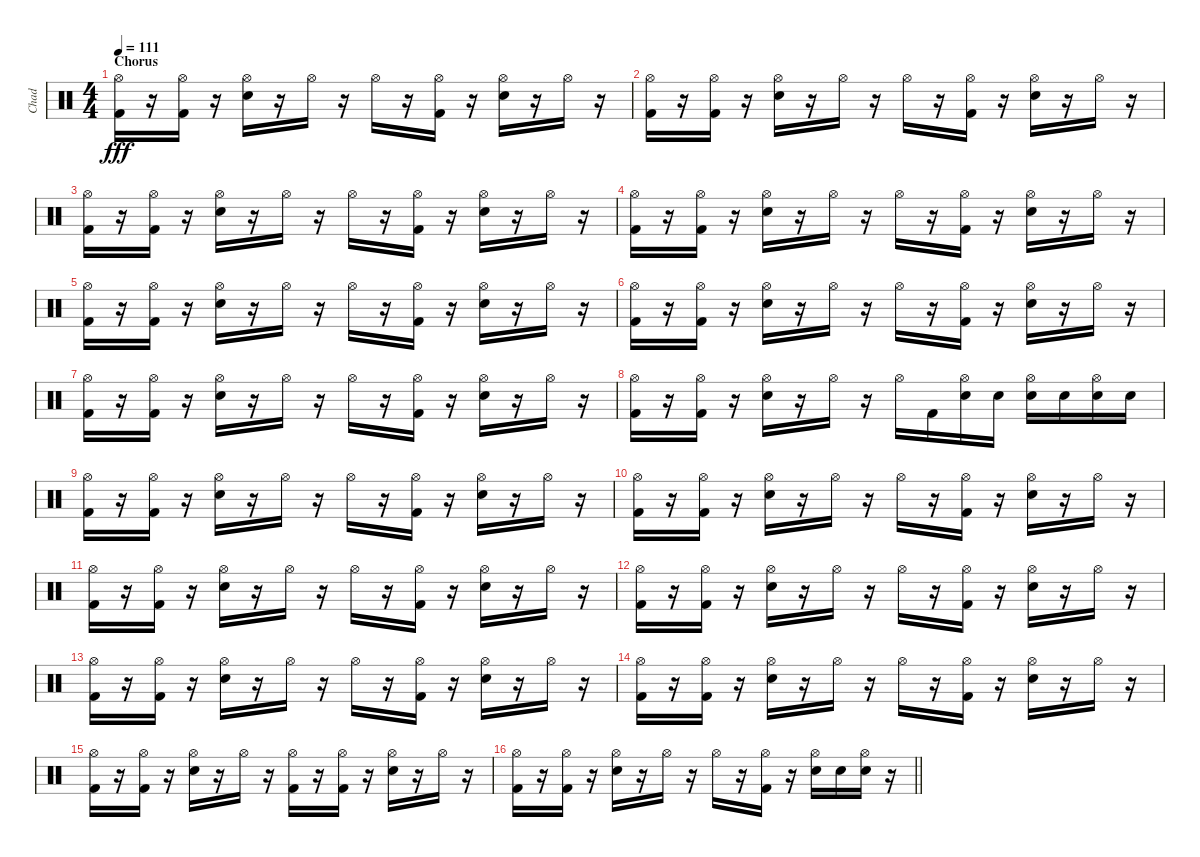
\track ("Chad" "Chad") {instrument percussion}
\staff {score}
\articulation defaults
\ts (4 4)
\section ("" "Chorus")
\tempo 111
\clef neutral
\ks c
("Hi-Hat (open)" "Kick (hit) 2").16{dy fff} r.16 ("Hi-Hat (open)" "Kick (hit) 2").16 r.16 ("Hi-Hat (open)" "Electric Snare (hit)").16 r.16 "Hi-Hat (open)".16 r.16 "Hi-Hat (open)".16 r.16 ("Hi-Hat (open)" "Kick (hit) 2").16 r.16 ("Hi-Hat (open)" "Electric Snare (hit)").16 r.16 "Hi-Hat (open)".16 r.16 |
("Hi-Hat (open)" "Kick (hit) 2").16 r.16 ("Hi-Hat (open)" "Kick (hit) 2").16 r.16 ("Hi-Hat (open)" "Electric Snare (hit)").16 r.16 "Hi-Hat (open)".16 r.16 "Hi-Hat (open)".16 r.16 ("Hi-Hat (open)" "Kick (hit) 2").16 r.16 ("Hi-Hat (open)" "Electric Snare (hit)").16 r.16 "Hi-Hat (open)".16 r.16 |
("Hi-Hat (open)" "Kick (hit) 2").16 r.16 ("Hi-Hat (open)" "Kick (hit) 2").16 r.16 ("Hi-Hat (open)" "Electric Snare (hit)").16 r.16 "Hi-Hat (open)".16 r.16 "Hi-Hat (open)".16 r.16 ("Hi-Hat (open)" "Kick (hit) 2").16 r.16 ("Hi-Hat (open)" "Electric Snare (hit)").16 r.16 "Hi-Hat (open)".16 r.16 |
("Hi-Hat (open)" "Kick (hit) 2").16 r.16 ("Hi-Hat (open)" "Kick (hit) 2").16 r.16 ("Hi-Hat (open)" "Electric Snare (hit)").16 r.16 "Hi-Hat (open)".16 r.16 "Hi-Hat (open)".16 r.16 ("Hi-Hat (open)" "Kick (hit) 2").16 r.16 ("Hi-Hat (open)" "Electric Snare (hit)").16 r.16 "Hi-Hat (open)".16 r.16 |
("Hi-Hat (open)" "Kick (hit) 2").16 r.16 ("Hi-Hat (open)" "Kick (hit) 2").16 r.16 ("Hi-Hat (open)" "Electric Snare (hit)").16 r.16 "Hi-Hat (open)".16 r.16 "Hi-Hat (open)".16 r.16 ("Hi-Hat (open)" "Kick (hit) 2").16 r.16 ("Hi-Hat (open)" "Electric Snare (hit)").16 r.16 "Hi-Hat (open)".16 r.16 |
("Hi-Hat (open)" "Kick (hit) 2").16 r.16 ("Hi-Hat (open)" "Kick (hit) 2").16 r.16 ("Hi-Hat (open)" "Electric Snare (hit)").16 r.16 "Hi-Hat (open)".16 r.16 "Hi-Hat (open)".16 r.16 ("Hi-Hat (open)" "Kick (hit) 2").16 r.16 ("Hi-Hat (open)" "Electric Snare (hit)").16 r.16 "Hi-Hat (open)".16 r.16 |
("Hi-Hat (open)" "Kick (hit) 2").16 r.16 ("Hi-Hat (open)" "Kick (hit) 2").16 r.16 ("Hi-Hat (open)" "Electric Snare (hit)").16 r.16 "Hi-Hat (open)".16 r.16 "Hi-Hat (open)".16 r.16 ("Hi-Hat (open)" "Kick (hit) 2").16 r.16 ("Hi-Hat (open)" "Electric Snare (hit)").16 r.16 "Hi-Hat (open)".16 r.16 |
("Hi-Hat (open)" "Kick (hit) 2").16 r.16 ("Hi-Hat (open)" "Kick (hit) 2").16 r.16 ("Hi-Hat (open)" "Electric Snare (hit)").16 r.16 "Hi-Hat (open)".16 r.16 "Hi-Hat (open)".16 "Kick (hit) 2".16 ("Hi-Hat (open)" "Electric Snare (hit)").16 "Electric Snare (hit)".16 ("Hi-Hat (open)" "Electric Snare (hit)").16 "Electric Snare (hit)".16 ("Hi-Hat (open)" "Electric Snare (hit)").16 "Electric Snare (hit)".16 |
("Hi-Hat (open)" "Kick (hit) 2").16 r.16 ("Hi-Hat (open)" "Kick (hit) 2").16 r.16 ("Hi-Hat (open)" "Electric Snare (hit)").16 r.16 "Hi-Hat (open)".16 r.16 "Hi-Hat (open)".16 r.16 ("Hi-Hat (open)" "Kick (hit) 2").16 r.16 ("Hi-Hat (open)" "Electric Snare (hit)").16 r.16 "Hi-Hat (open)".16 r.16 |
("Hi-Hat (open)" "Kick (hit) 2").16 r.16 ("Hi-Hat (open)" "Kick (hit) 2").16 r.16 ("Hi-Hat (open)" "Electric Snare (hit)").16 r.16 "Hi-Hat (open)".16 r.16 "Hi-Hat (open)".16 r.16 ("Hi-Hat (open)" "Kick (hit) 2").16 r.16 ("Hi-Hat (open)" "Electric Snare (hit)").16 r.16 "Hi-Hat (open)".16 r.16 |
("Hi-Hat (open)" "Kick (hit) 2").16 r.16 ("Hi-Hat (open)" "Kick (hit) 2").16 r.16 ("Hi-Hat (open)" "Electric Snare (hit)").16 r.16 "Hi-Hat (open)".16 r.16 "Hi-Hat (open)".16 r.16 ("Hi-Hat (open)" "Kick (hit) 2").16 r.16 ("Hi-Hat (open)" "Electric Snare (hit)").16 r.16 "Hi-Hat (open)".16 r.16 |
("Hi-Hat (open)" "Kick (hit) 2").16 r.16 ("Hi-Hat (open)" "Kick (hit) 2").16 r.16 ("Hi-Hat (open)" "Electric Snare (hit)").16 r.16 "Hi-Hat (open)".16 r.16 "Hi-Hat (open)".16 r.16 ("Hi-Hat (open)" "Kick (hit) 2").16 r.16 ("Hi-Hat (open)" "Electric Snare (hit)").16 r.16 "Hi-Hat (open)".16 r.16 |
("Hi-Hat (open)" "Kick (hit) 2").16 r.16 ("Hi-Hat (open)" "Kick (hit) 2").16 r.16 ("Hi-Hat (open)" "Electric Snare (hit)").16 r.16 "Hi-Hat (open)".16 r.16 "Hi-Hat (open)".16 r.16 ("Hi-Hat (open)" "Kick (hit) 2").16 r.16 ("Hi-Hat (open)" "Electric Snare (hit)").16 r.16 "Hi-Hat (open)".16 r.16 |
("Hi-Hat (open)" "Kick (hit) 2").16 r.16 ("Hi-Hat (open)" "Kick (hit) 2").16 r.16 ("Hi-Hat (open)" "Electric Snare (hit)").16 r.16 "Hi-Hat (open)".16 r.16 "Hi-Hat (open)".16 r.16 ("Hi-Hat (open)" "Kick (hit) 2").16 r.16 ("Hi-Hat (open)" "Electric Snare (hit)").16 r.16 "Hi-Hat (open)".16 r.16 |
("Hi-Hat (open)" "Kick (hit) 2").16 r.16 ("Hi-Hat (open)" "Kick (hit) 2").16 r.16 ("Hi-Hat (open)" "Electric Snare (hit)").16 r.16 "Hi-Hat (open)".16 r.16 ("Hi-Hat (open)" "Kick (hit) 2").16 r.16 ("Hi-Hat (open)" "Kick (hit) 2").16 r.16 ("Hi-Hat (open)" "Electric Snare (hit)").16 r.16 "Hi-Hat (open)".16 r.16 |
\barLineRight lightlight
("Hi-Hat (open)" "Kick (hit) 2").16 r.16 ("Hi-Hat (open)" "Kick (hit) 2").16 r.16 ("Hi-Hat (open)" "Electric Snare (hit)").16 r.16 "Hi-Hat (open)".16 r.16 "Hi-Hat (open)".16 r.16 ("Hi-Hat (open)" "Kick (hit) 2").16 r.16 ("Hi-Hat (open)" "Electric Snare (hit)").16 "Electric Snare (hit)".16 ("Hi-Hat (open)" "Electric Snare (hit)").16 r.16
